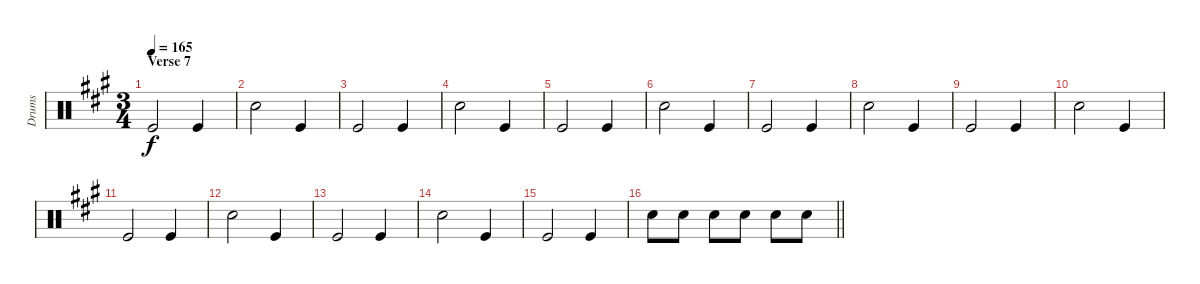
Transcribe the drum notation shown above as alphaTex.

\track ("Drums" "Drums") {instrument percussion}
\staff {score}
\articulation defaults
\ts (3 4)
\section ("" "Verse 7")
\tempo 165
\clef neutral
\ks a "Kick (hit)".2{dy f} "Kick (hit)".4
|
"Snare (hit) 2".2 "Kick (hit)".4 |
"Kick (hit)".2 "Kick (hit)".4 |
"Snare (hit) 2".2 "Kick (hit)".4 |
"Kick (hit)".2 "Kick (hit)".4 |
"Snare (hit) 2".2 "Kick (hit)".4 |
"Kick (hit)".2 "Kick (hit)".4 |
"Snare (hit) 2".2 "Kick (hit)".4 |
"Kick (hit)".2 "Kick (hit)".4 |
"Snare (hit) 2".2 "Kick (hit)".4 |
"Kick (hit)".2 "Kick (hit)".4 |
"Snare (hit) 2".2 "Kick (hit)".4 |
"Kick (hit)".2 "Kick (hit)".4 |
"Snare (hit) 2".2 "Kick (hit)".4 |
"Kick (hit)".2 "Kick (hit)".4 |
\barLineRight lightlight "Snare (hit) 2".8 "Snare (hit) 2".8 "Snare (hit) 2".8 "Snare (hit) 2".8 "Snare (hit) 2".8 "Snare (hit) 2".8
